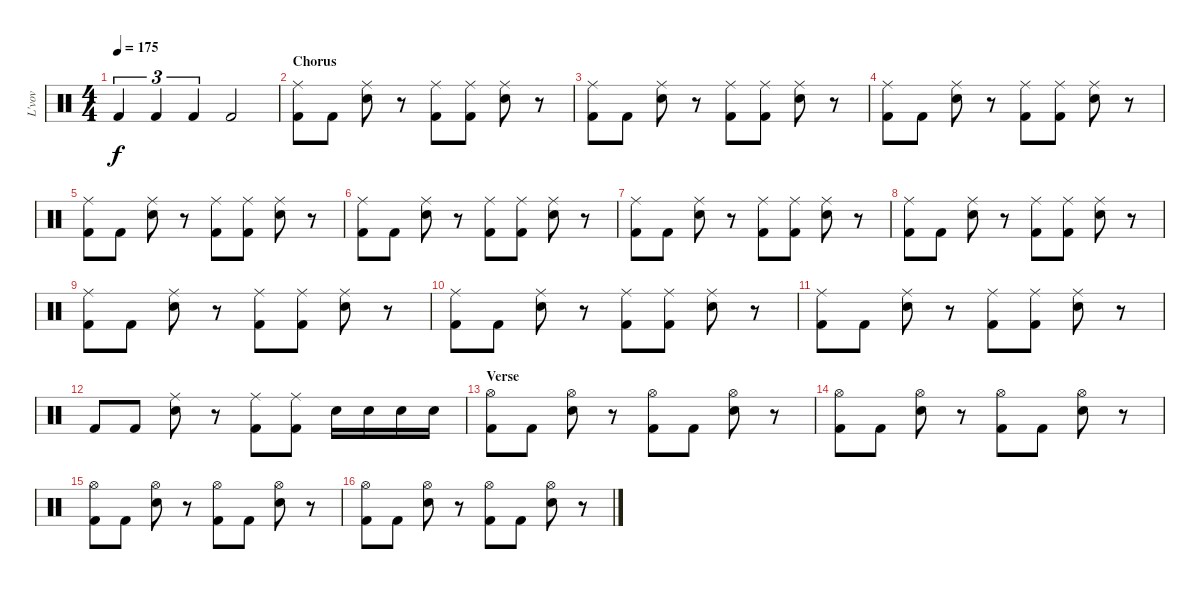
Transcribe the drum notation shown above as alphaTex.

\track ("L'vov" "L'vov") {instrument percussion}
\staff {score}
\articulation defaults
\ts (4 4)
\tempo 175
\clef neutral
\ks c "Kick (hit) 2".4{tu (3 2) dy f} "Kick (hit) 2".4{tu (3 2)} "Kick (hit) 2".4{tu (3 2)} "Kick (hit) 2".2
|
\section ("" "Chorus")
("Kick (hit) 2" "Ride (middle)").8 "Kick (hit) 2".8 ("Snare (hit) 2" "Ride (middle)").8 r.8 ("Kick (hit) 2" "Ride (middle)").8 ("Kick (hit) 2" "Ride (middle)").8 ("Snare (hit) 2" "Ride (middle)").8 r.8 |
("Kick (hit) 2" "Ride (middle)").8 "Kick (hit) 2".8 ("Snare (hit) 2" "Ride (middle)").8 r.8 ("Kick (hit) 2" "Ride (middle)").8 ("Kick (hit) 2" "Ride (middle)").8 ("Snare (hit) 2" "Ride (middle)").8 r.8 |
("Kick (hit) 2" "Ride (middle)").8 "Kick (hit) 2".8 ("Snare (hit) 2" "Ride (middle)").8 r.8 ("Kick (hit) 2" "Ride (middle)").8 ("Kick (hit) 2" "Ride (middle)").8 ("Snare (hit) 2" "Ride (middle)").8 r.8 |
("Kick (hit) 2" "Ride (middle)").8 "Kick (hit) 2".8 ("Snare (hit) 2" "Ride (middle)").8 r.8 ("Kick (hit) 2" "Ride (middle)").8 ("Kick (hit) 2" "Ride (middle)").8 ("Snare (hit) 2" "Ride (middle)").8 r.8 |
("Kick (hit) 2" "Ride (middle)").8 "Kick (hit) 2".8 ("Snare (hit) 2" "Ride (middle)").8 r.8 ("Kick (hit) 2" "Ride (middle)").8 ("Kick (hit) 2" "Ride (middle)").8 ("Snare (hit) 2" "Ride (middle)").8 r.8 |
("Kick (hit) 2" "Ride (middle)").8 "Kick (hit) 2".8 ("Snare (hit) 2" "Ride (middle)").8 r.8 ("Kick (hit) 2" "Ride (middle)").8 ("Kick (hit) 2" "Ride (middle)").8 ("Snare (hit) 2" "Ride (middle)").8 r.8 |
("Kick (hit) 2" "Ride (middle)").8 "Kick (hit) 2".8 ("Snare (hit) 2" "Ride (middle)").8 r.8 ("Kick (hit) 2" "Ride (middle)").8 ("Kick (hit) 2" "Ride (middle)").8 ("Snare (hit) 2" "Ride (middle)").8 r.8 |
("Kick (hit) 2" "Ride (middle)").8 "Kick (hit) 2".8 ("Snare (hit) 2" "Ride (middle)").8 r.8 ("Kick (hit) 2" "Ride (middle)").8 ("Kick (hit) 2" "Ride (middle)").8 ("Snare (hit) 2" "Ride (middle)").8 r.8 |
("Kick (hit) 2" "Ride (middle)").8 "Kick (hit) 2".8 ("Snare (hit) 2" "Ride (middle)").8 r.8 ("Kick (hit) 2" "Ride (middle)").8 ("Kick (hit) 2" "Ride (middle)").8 ("Snare (hit) 2" "Ride (middle)").8 r.8 |
("Kick (hit) 2" "Ride (middle)").8 "Kick (hit) 2".8 ("Snare (hit) 2" "Ride (middle)").8 r.8 ("Kick (hit) 2" "Ride (middle)").8 ("Kick (hit) 2" "Ride (middle)").8 ("Snare (hit) 2" "Ride (middle)").8 r.8 |
"Kick (hit) 2".8 "Kick (hit) 2".8 ("Snare (hit) 2" "Ride (middle)").8 r.8 ("Kick (hit) 2" "Ride (middle)").8 ("Kick (hit) 2" "Ride (middle)").8 "Snare (hit) 2".16 "Snare (hit) 2".16 "Snare (hit) 2".16 "Snare (hit) 2".16 |
\section ("" "Verse")
("Kick (hit) 2" "Hi-Hat (open)").8 "Kick (hit) 2".8 ("Snare (hit) 2" "Hi-Hat (open)").8 r.8 ("Kick (hit) 2" "Hi-Hat (open)").8 "Kick (hit) 2".8 ("Snare (hit) 2" "Hi-Hat (open)").8 r.8 |
("Kick (hit) 2" "Hi-Hat (open)").8 "Kick (hit) 2".8 ("Snare (hit) 2" "Hi-Hat (open)").8 r.8 ("Kick (hit) 2" "Hi-Hat (open)").8 "Kick (hit) 2".8 ("Snare (hit) 2" "Hi-Hat (open)").8 r.8 |
("Kick (hit) 2" "Hi-Hat (open)").8 "Kick (hit) 2".8 ("Snare (hit) 2" "Hi-Hat (open)").8 r.8 ("Kick (hit) 2" "Hi-Hat (open)").8 "Kick (hit) 2".8 ("Snare (hit) 2" "Hi-Hat (open)").8 r.8 |
("Kick (hit) 2" "Hi-Hat (open)").8 "Kick (hit) 2".8 ("Snare (hit) 2" "Hi-Hat (open)").8 r.8 ("Kick (hit) 2" "Hi-Hat (open)").8 "Kick (hit) 2".8 ("Snare (hit) 2" "Hi-Hat (open)").8 r.8
